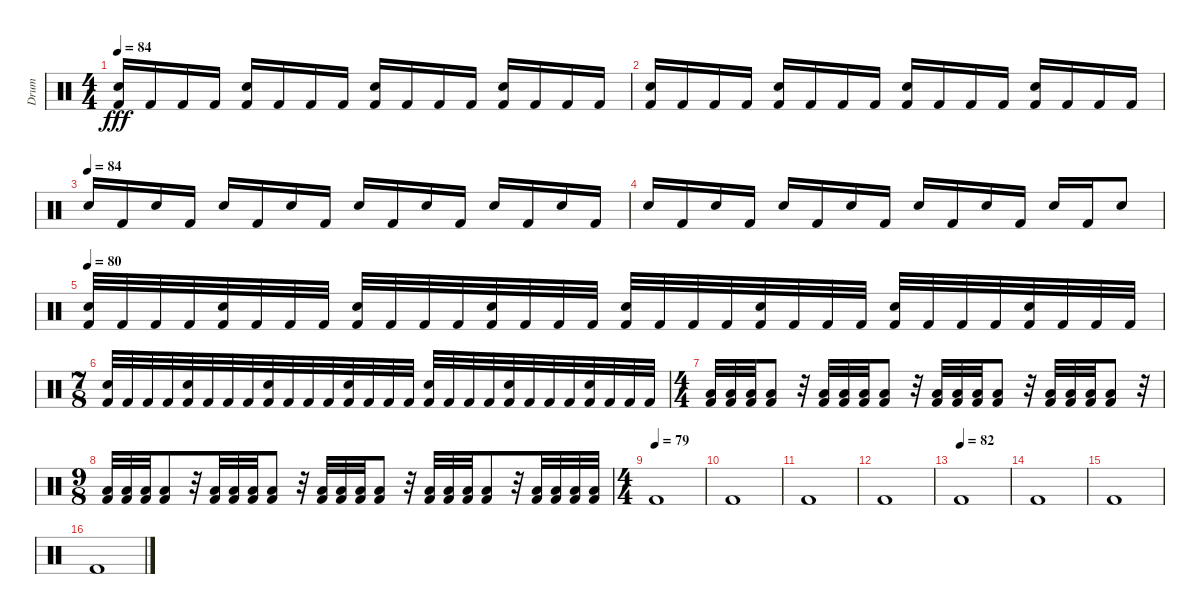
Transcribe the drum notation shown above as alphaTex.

\track ("Drum" "Drum") {instrument percussion}
\staff {score}
\articulation defaults
\ts (4 4)
\tempo 84
\clef neutral
\ks c
("Electric Snare (hit)" "Kick (hit) 2").16{dy fff} "Kick (hit) 2".16 "Kick (hit) 2".16 "Kick (hit) 2".16 ("Electric Snare (hit)" "Kick (hit) 2").16 "Kick (hit) 2".16 "Kick (hit) 2".16 "Kick (hit) 2".16 ("Electric Snare (hit)" "Kick (hit) 2").16 "Kick (hit) 2".16 "Kick (hit) 2".16 "Kick (hit) 2".16 ("Electric Snare (hit)" "Kick (hit) 2").16 "Kick (hit) 2".16 "Kick (hit) 2".16 "Kick (hit) 2".16 |
("Electric Snare (hit)" "Kick (hit) 2").16 "Kick (hit) 2".16 "Kick (hit) 2".16 "Kick (hit) 2".16 ("Electric Snare (hit)" "Kick (hit) 2").16 "Kick (hit) 2".16 "Kick (hit) 2".16 "Kick (hit) 2".16 ("Electric Snare (hit)" "Kick (hit) 2").16 "Kick (hit) 2".16 "Kick (hit) 2".16 "Kick (hit) 2".16 ("Electric Snare (hit)" "Kick (hit) 2").16 "Kick (hit) 2".16 "Kick (hit) 2".16 "Kick (hit) 2".16 |
\tempo (84)
"Electric Snare (hit)".16 "Kick (hit) 2".16 "Electric Snare (hit)".16 "Kick (hit) 2".16 "Electric Snare (hit)".16 "Kick (hit) 2".16 "Electric Snare (hit)".16 "Kick (hit) 2".16 "Electric Snare (hit)".16 "Kick (hit) 2".16 "Electric Snare (hit)".16 "Kick (hit) 2".16 "Electric Snare (hit)".16 "Kick (hit) 2".16 "Electric Snare (hit)".16 "Kick (hit) 2".16 |
"Electric Snare (hit)".16 "Kick (hit) 2".16 "Electric Snare (hit)".16 "Kick (hit) 2".16 "Electric Snare (hit)".16 "Kick (hit) 2".16 "Electric Snare (hit)".16 "Kick (hit) 2".16 "Electric Snare (hit)".16 "Kick (hit) 2".16 "Electric Snare (hit)".16 "Kick (hit) 2".16 "Electric Snare (hit)".16 "Kick (hit) 2".16 "Electric Snare (hit)".8 |
\tempo 80
("Electric Snare (hit)" "Kick (hit) 2").32 "Kick (hit) 2".32 "Kick (hit) 2".32 "Kick (hit) 2".32 ("Electric Snare (hit)" "Kick (hit) 2").32 "Kick (hit) 2".32 "Kick (hit) 2".32 "Kick (hit) 2".32 ("Electric Snare (hit)" "Kick (hit) 2").32 "Kick (hit) 2".32 "Kick (hit) 2".32 "Kick (hit) 2".32 ("Electric Snare (hit)" "Kick (hit) 2").32 "Kick (hit) 2".32 "Kick (hit) 2".32 "Kick (hit) 2".32 ("Electric Snare (hit)" "Kick (hit) 2").32 "Kick (hit) 2".32 "Kick (hit) 2".32 "Kick (hit) 2".32 ("Electric Snare (hit)" "Kick (hit) 2").32 "Kick (hit) 2".32 "Kick (hit) 2".32 "Kick (hit) 2".32 ("Electric Snare (hit)" "Kick (hit) 2").32 "Kick (hit) 2".32 "Kick (hit) 2".32 "Kick (hit) 2".32 ("Electric Snare (hit)" "Kick (hit) 2").32 "Kick (hit) 2".32 "Kick (hit) 2".32 "Kick (hit) 2".32 |
\ts (7 8)
("Electric Snare (hit)" "Kick (hit) 2").32 "Kick (hit) 2".32 "Kick (hit) 2".32 "Kick (hit) 2".32 ("Electric Snare (hit)" "Kick (hit) 2").32 "Kick (hit) 2".32 "Kick (hit) 2".32 "Kick (hit) 2".32 ("Electric Snare (hit)" "Kick (hit) 2").32 "Kick (hit) 2".32 "Kick (hit) 2".32 "Kick (hit) 2".32 ("Electric Snare (hit)" "Kick (hit) 2").32 "Kick (hit) 2".32 "Kick (hit) 2".32 "Kick (hit) 2".32 ("Electric Snare (hit)" "Kick (hit) 2").32 "Kick (hit) 2".32 "Kick (hit) 2".32 "Kick (hit) 2".32 ("Electric Snare (hit)" "Kick (hit) 2").32 "Kick (hit) 2".32 "Kick (hit) 2".32 "Kick (hit) 2".32 ("Electric Snare (hit)" "Kick (hit) 2").32 "Kick (hit) 2".32 "Kick (hit) 2".32 "Kick (hit) 2".32 |
\ts (4 4)
("Low Tom (hit)" "Kick (hit) 2").32 ("Low Tom (hit)" "Kick (hit) 2").32 ("Low Tom (hit)" "Kick (hit) 2").32 ("Low Tom (hit)" "Kick (hit) 2").8 r.32 ("Low Tom (hit)" "Kick (hit) 2").32 ("Low Tom (hit)" "Kick (hit) 2").32 ("Low Tom (hit)" "Kick (hit) 2").32 ("Low Tom (hit)" "Kick (hit) 2").8 r.32 ("Low Tom (hit)" "Kick (hit) 2").32 ("Low Tom (hit)" "Kick (hit) 2").32 ("Low Tom (hit)" "Kick (hit) 2").32 ("Low Tom (hit)" "Kick (hit) 2").8 r.32 ("Low Tom (hit)" "Kick (hit) 2").32 ("Low Tom (hit)" "Kick (hit) 2").32 ("Low Tom (hit)" "Kick (hit) 2").32 ("Low Tom (hit)" "Kick (hit) 2").8 r.32 |
\ts (9 8)
("Low Tom (hit)" "Kick (hit) 2").32 ("Low Tom (hit)" "Kick (hit) 2").32 ("Low Tom (hit)" "Kick (hit) 2").32 ("Low Tom (hit)" "Kick (hit) 2").8 r.32 ("Low Tom (hit)" "Kick (hit) 2").32 ("Low Tom (hit)" "Kick (hit) 2").32 ("Low Tom (hit)" "Kick (hit) 2").32 ("Low Tom (hit)" "Kick (hit) 2").8 r.32 ("Low Tom (hit)" "Kick (hit) 2").32 ("Low Tom (hit)" "Kick (hit) 2").32 ("Low Tom (hit)" "Kick (hit) 2").32 ("Low Tom (hit)" "Kick (hit) 2").8 r.32 ("Low Tom (hit)" "Kick (hit) 2").32 ("Low Tom (hit)" "Kick (hit) 2").32 ("Low Tom (hit)" "Kick (hit) 2").32 ("Low Tom (hit)" "Kick (hit) 2").8 r.32 ("Low Tom (hit)" "Kick (hit) 2").32 ("Low Tom (hit)" "Kick (hit) 2").32 ("Low Tom (hit)" "Kick (hit) 2").32 ("Low Tom (hit)" "Kick (hit) 2").32 |
\ts (4 4)
\tempo (79)
"Kick (hit) 2".1 |
"Kick (hit) 2".1 |
"Kick (hit) 2".1 |
"Kick (hit) 2".1 |
\tempo (82)
"Kick (hit) 2".1 |
"Kick (hit) 2".1 |
"Kick (hit) 2".1 |
"Kick (hit) 2".1
